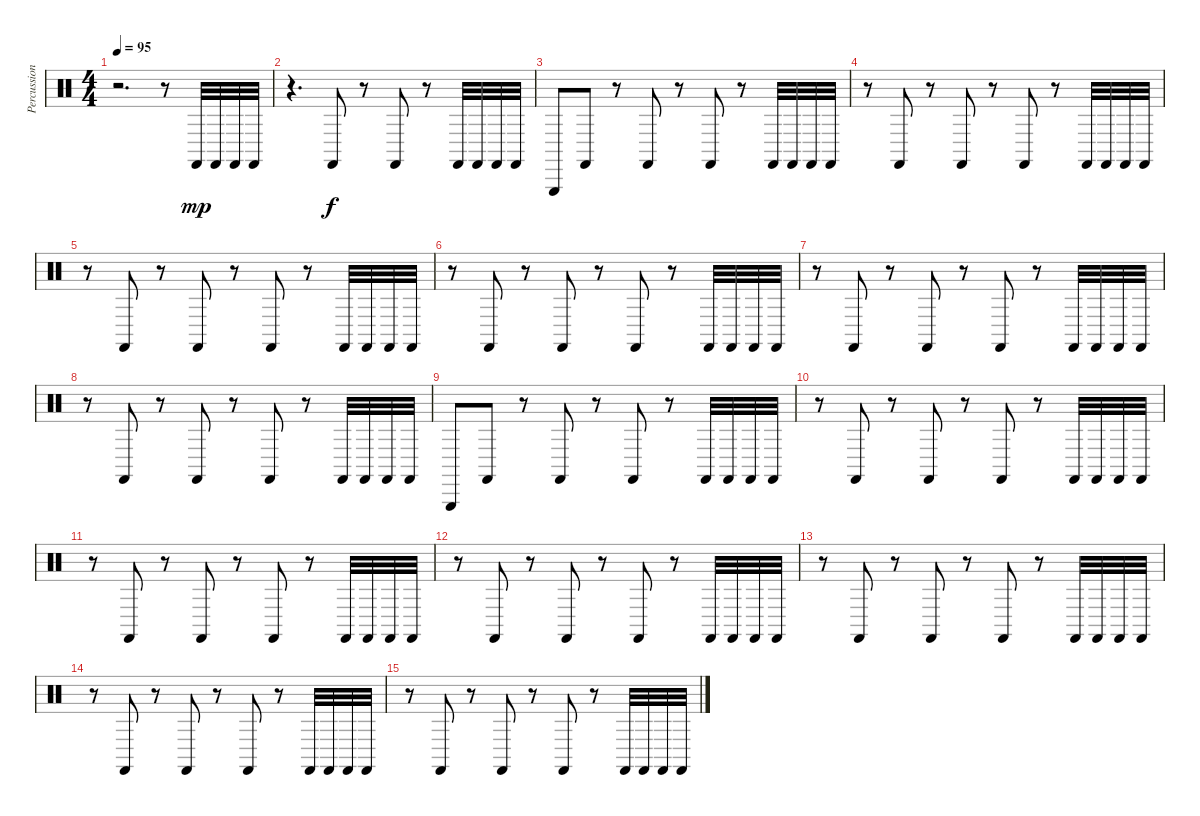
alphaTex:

\track ("Percussion" "Percussion") {instrument percussion}
\staff {score}
\articulation defaults
\ts (4 4)
\tempo 95
\clef neutral
\ks c
r.2{d dy mp} r.8 "Castanets (hit)".32 "Castanets (hit)".32 "Castanets (hit)".32 "Castanets (hit)".32 |
r.4{d} "Castanets (hit)".8{dy f} r.8 "Castanets (hit)".8 r.8 "Castanets (hit)".32 "Castanets (hit)".32 "Castanets (hit)".32 "Castanets (hit)".32 |
"Triangle (hit)".8 "Castanets (hit)".8 r.8 "Castanets (hit)".8 r.8 "Castanets (hit)".8 r.8 "Castanets (hit)".32 "Castanets (hit)".32 "Castanets (hit)".32 "Castanets (hit)".32 |
r.8 "Castanets (hit)".8 r.8 "Castanets (hit)".8 r.8 "Castanets (hit)".8 r.8 "Castanets (hit)".32 "Castanets (hit)".32 "Castanets (hit)".32 "Castanets (hit)".32 |
r.8 "Castanets (hit)".8 r.8 "Castanets (hit)".8 r.8 "Castanets (hit)".8 r.8 "Castanets (hit)".32 "Castanets (hit)".32 "Castanets (hit)".32 "Castanets (hit)".32 |
r.8 "Castanets (hit)".8 r.8 "Castanets (hit)".8 r.8 "Castanets (hit)".8 r.8 "Castanets (hit)".32 "Castanets (hit)".32 "Castanets (hit)".32 "Castanets (hit)".32 |
r.8 "Castanets (hit)".8 r.8 "Castanets (hit)".8 r.8 "Castanets (hit)".8 r.8 "Castanets (hit)".32 "Castanets (hit)".32 "Castanets (hit)".32 "Castanets (hit)".32 |
r.8 "Castanets (hit)".8 r.8 "Castanets (hit)".8 r.8 "Castanets (hit)".8 r.8 "Castanets (hit)".32 "Castanets (hit)".32 "Castanets (hit)".32 "Castanets (hit)".32 |
"Triangle (hit)".8 "Castanets (hit)".8 r.8 "Castanets (hit)".8 r.8 "Castanets (hit)".8 r.8 "Castanets (hit)".32 "Castanets (hit)".32 "Castanets (hit)".32 "Castanets (hit)".32 |
r.8 "Castanets (hit)".8 r.8 "Castanets (hit)".8 r.8 "Castanets (hit)".8 r.8 "Castanets (hit)".32 "Castanets (hit)".32 "Castanets (hit)".32 "Castanets (hit)".32 |
r.8 "Castanets (hit)".8 r.8 "Castanets (hit)".8 r.8 "Castanets (hit)".8 r.8 "Castanets (hit)".32 "Castanets (hit)".32 "Castanets (hit)".32 "Castanets (hit)".32 |
r.8 "Castanets (hit)".8 r.8 "Castanets (hit)".8 r.8 "Castanets (hit)".8 r.8 "Castanets (hit)".32 "Castanets (hit)".32 "Castanets (hit)".32 "Castanets (hit)".32 |
r.8 "Castanets (hit)".8 r.8 "Castanets (hit)".8 r.8 "Castanets (hit)".8 r.8 "Castanets (hit)".32 "Castanets (hit)".32 "Castanets (hit)".32 "Castanets (hit)".32 |
r.8 "Castanets (hit)".8 r.8 "Castanets (hit)".8 r.8 "Castanets (hit)".8 r.8 "Castanets (hit)".32 "Castanets (hit)".32 "Castanets (hit)".32 "Castanets (hit)".32 |
r.8 "Castanets (hit)".8 r.8 "Castanets (hit)".8 r.8 "Castanets (hit)".8 r.8 "Castanets (hit)".32 "Castanets (hit)".32 "Castanets (hit)".32 "Castanets (hit)".32
